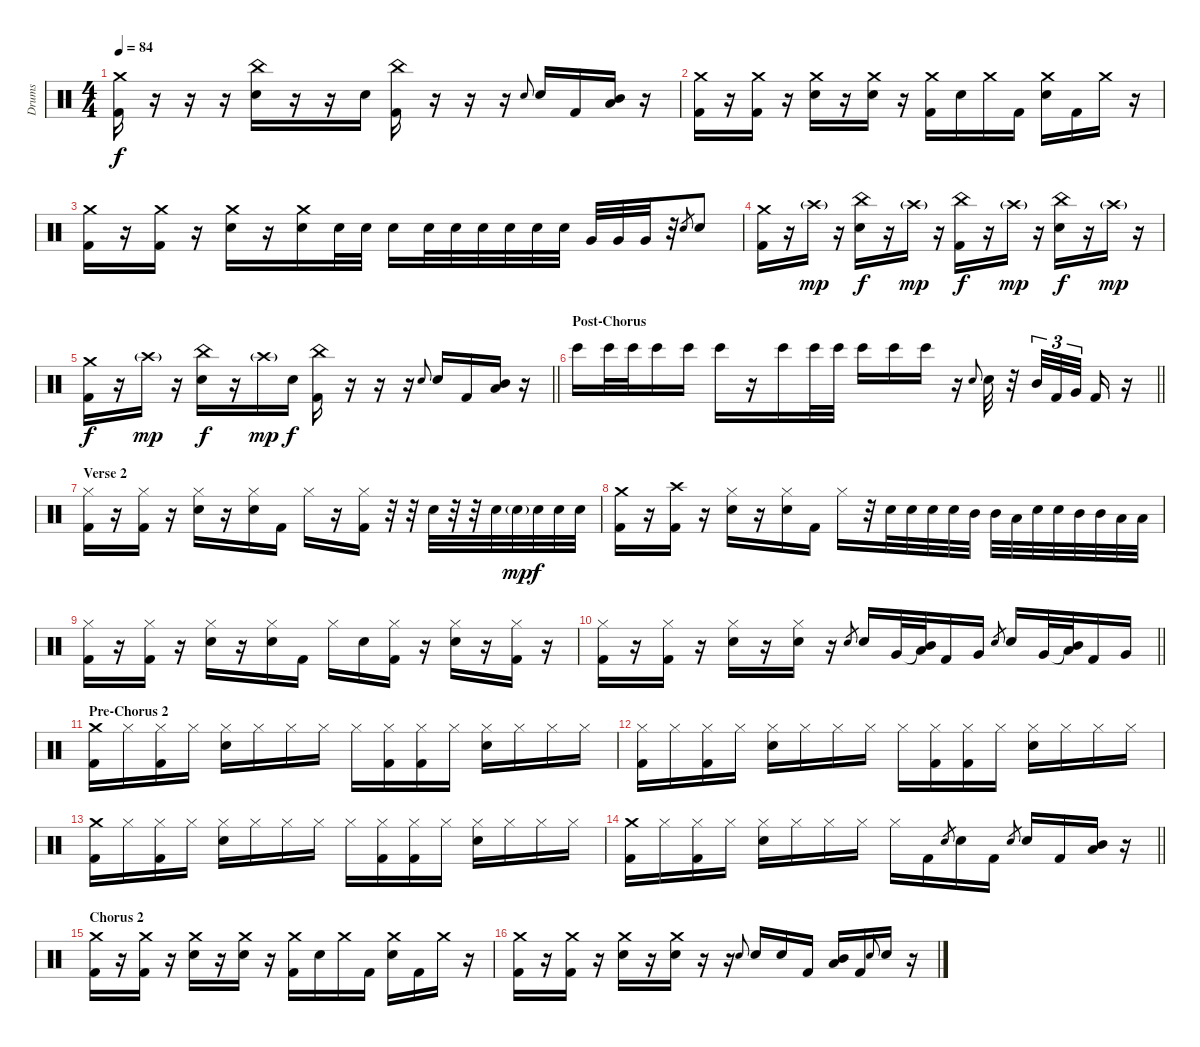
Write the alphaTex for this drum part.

\track ("Drums" "Drums") {instrument percussion}
\staff {score}
\articulation defaults
\ts (4 4)
\tempo 84
\clef neutral
\ks c
("Crash medium (hit)" "Kick (hit) 2").16{dy f} r.16 r.16 r.16 ("China (hit)" "Electric Snare (hit)").16 r.16 r.16 "Electric Snare (hit)".16 ("China (hit)" "Kick (hit) 2").16 r.16 r.16 r.16 "Electric Snare (hit)".8{gr onbeat} "Electric Snare (hit)".16 "Kick (hit) 2".16 ("Mid Tom (hit)" "Low Tom (hit)").16 r.16 |
("Crash medium (hit)" "Kick (hit) 2").16 r.16 ("Crash medium (hit)" "Kick (hit) 2").16 r.16 ("Crash medium (hit)" "Electric Snare (hit)").16 r.16 ("Crash medium (hit)" "Electric Snare (hit)").16 r.16 ("Crash medium (hit)" "Kick (hit) 2").16 "Electric Snare (hit)".16 "Crash medium (hit)".16 "Kick (hit) 2".16 ("Crash medium (hit)" "Electric Snare (hit)").16 "Kick (hit) 2".16 "Crash medium (hit)".16 r.16 |
("Crash medium (hit)" "Kick (hit) 2").16 r.16 ("Crash medium (hit)" "Kick (hit) 2").16 r.16 ("Crash medium (hit)" "Electric Snare (hit)").16 r.16 ("Crash medium (hit)" "Electric Snare (hit)").16 "Electric Snare (hit)".32 "Electric Snare (hit)".32 "Electric Snare (hit)".16 "Electric Snare (hit)".32 "Electric Snare (hit)".32 "Electric Snare (hit)".32 "Electric Snare (hit)".32 "Electric Snare (hit)".32 "Electric Snare (hit)".32 "Very Low Tom (hit)".32 "Very Low Tom (hit)".32 "Very Low Tom (hit)".32 r.32 "Electric Snare (hit)".8{gr} "Electric Snare (hit)".8 |
("Crash medium (hit)" "Kick (hit) 2").16 r.16 "Crash high (hit)"{g}.16{dy mp} r.16 ("China (hit)" "Electric Snare (hit)").16{dy f} r.16 "Crash high (hit)"{g}.16{dy mp} r.16 ("China (hit)" "Kick (hit) 2").16{dy f} r.16 "Crash high (hit)"{g}.16{dy mp} r.16 ("China (hit)" "Electric Snare (hit)").16{dy f} r.16 "Crash high (hit)"{g}.16{dy mp} r.16 |
\barLineRight lightlight
("Crash medium (hit)" "Kick (hit) 2").16{dy f} r.16 "Crash high (hit)"{g}.16{dy mp} r.16 ("China (hit)" "Electric Snare (hit)").16{dy f} r.16 "Crash high (hit)"{g}.16{dy mp} "Electric Snare (hit)".16{dy f} ("China (hit)" "Kick (hit) 2").16 r.16 r.16 r.16 "Electric Snare (hit)".8{gr onbeat} "Electric Snare (hit)".16 "Kick (hit) 2".16 ("Mid Tom (hit)" "Low Tom (hit)").16 r.16 |
\section ("" "Post-Chorus")
\barLineRight lightlight "Bongo High (hit)".16 "Bongo High (hit)".32 "Bongo High (hit)".32 "Bongo High (hit)".16 "Bongo High (hit)".16 "Bongo High (hit)".16
r.16 "Bongo High (hit)".16 "Bongo High (hit)".32 "Bongo High (hit)".32 "Bongo High (hit)".16 "Bongo High (hit)".16 "Bongo High (hit)".16 r.16 "Electric Snare (hit)".8{gr onbeat} "Electric Snare (hit)".32 r.32 "Mid Tom (hit)".32{tu (3 2)} "Kick (hit) 2".32{tu (3 2)} "Very Low Tom (hit)".32{tu (3 2) beam splitsecondary} "Kick (hit) 2".16 r.16 |
\section ("" "Verse 2")
("Hi-Hat (closed)" "Kick (hit) 2").16 r.16 ("Hi-Hat (closed)" "Kick (hit) 2").16 r.16 ("Hi-Hat (closed)" "Electric Snare (hit)").16 r.16 ("Hi-Hat (closed)" "Electric Snare (hit)").16 "Kick (hit) 2".16 "Hi-Hat (closed)".16 r.16 ("Hi-Hat (closed)" "Kick (hit) 2").16 r.32 r.32 "Electric Snare (hit)".32 r.32 r.32 "Electric Snare (hit)".32 "Electric Snare (hit)"{g}.32{dy mp} "Electric Snare (hit)".32{dy f} "Electric Snare (hit)".32 "Electric Snare (hit)".32 |
("Crash medium (hit)" "Kick (hit) 2").16 r.16 ("Crash high (hit)" "Kick (hit) 2").16 r.16 ("Hi-Hat (closed)" "Electric Snare (hit)").16 r.16 ("Hi-Hat (closed)" "Electric Snare (hit)").16 "Kick (hit) 2".16 "Hi-Hat (closed)".16 r.32 "Electric Snare (hit)".32 "Electric Snare (hit)".32 "Electric Snare (hit)".32 "Electric Snare (hit)".32 "Mid Tom (hit)".32 "Mid Tom (hit)".32 "Low Tom (hit)".32 "Electric Snare (hit)".32 "Electric Snare (hit)".32 "Mid Tom (hit)".32 "Mid Tom (hit)".32 "Low Tom (hit)".32 "Low Tom (hit)".32 |
("Hi-Hat (closed)" "Kick (hit) 2").16 r.16 ("Hi-Hat (closed)" "Kick (hit) 2").16 r.16 ("Hi-Hat (closed)" "Electric Snare (hit)").16 r.16 ("Hi-Hat (closed)" "Electric Snare (hit)").16 "Kick (hit) 2".16 "Hi-Hat (closed)".16 "Electric Snare (hit)".16 ("Hi-Hat (closed)" "Kick (hit) 2").16 r.16 ("Hi-Hat (closed)" "Electric Snare (hit)").16 r.16 ("Hi-Hat (closed)" "Kick (hit) 2").16 r.16 |
\barLineRight lightlight
("Hi-Hat (closed)" "Kick (hit) 2").16 r.16 ("Hi-Hat (closed)" "Kick (hit) 2").16 r.16 ("Hi-Hat (closed)" "Electric Snare (hit)").16 r.16 ("Hi-Hat (closed)" "Electric Snare (hit)").16 r.16 "Electric Snare (hit)".8{gr} "Electric Snare (hit)".16 "Very Low Tom (hit)".32 ("Mid Tom (hit)"{t} "Low Tom (hit)").32 "Kick (hit) 2".16 "Very Low Tom (hit)".16 "Electric Snare (hit)".8{gr} "Electric Snare (hit)".16 "Very Low Tom (hit)".32 ("Mid Tom (hit)"{t} "Low Tom (hit)").32 "Kick (hit) 2".16 "Very Low Tom (hit)".16 |
\section ("" "Pre-Chorus 2")
("Crash medium (hit)" "Kick (hit) 2").16 "Hi-Hat (closed)".16 ("Hi-Hat (closed)" "Kick (hit) 2").16 "Hi-Hat (closed)".16 ("Hi-Hat (closed)" "Electric Snare (hit)").16 "Hi-Hat (closed)".16 "Hi-Hat (closed)".16 "Hi-Hat (closed)".16 "Hi-Hat (closed)".16 ("Hi-Hat (closed)" "Kick (hit) 2").16 ("Hi-Hat (closed)" "Kick (hit) 2").16 "Hi-Hat (closed)".16 ("Hi-Hat (closed)" "Electric Snare (hit)").16 "Hi-Hat (closed)".16 "Hi-Hat (closed)".16 "Hi-Hat (closed)".16 |
("Hi-Hat (closed)" "Kick (hit) 2").16 "Hi-Hat (closed)".16 ("Hi-Hat (closed)" "Kick (hit) 2").16 "Hi-Hat (closed)".16 ("Hi-Hat (closed)" "Electric Snare (hit)").16 "Hi-Hat (closed)".16 "Hi-Hat (closed)".16 "Hi-Hat (closed)".16 "Hi-Hat (closed)".16 ("Hi-Hat (closed)" "Kick (hit) 2").16 ("Hi-Hat (closed)" "Kick (hit) 2").16 "Hi-Hat (closed)".16 ("Hi-Hat (closed)" "Electric Snare (hit)").16 "Hi-Hat (closed)".16 "Hi-Hat (closed)".16 "Hi-Hat (closed)".16 |
("Crash medium (hit)" "Kick (hit) 2").16 "Hi-Hat (closed)".16 ("Hi-Hat (closed)" "Kick (hit) 2").16 "Hi-Hat (closed)".16 ("Hi-Hat (closed)" "Electric Snare (hit)").16 "Hi-Hat (closed)".16 "Hi-Hat (closed)".16 "Hi-Hat (closed)".16 "Hi-Hat (closed)".16 ("Hi-Hat (closed)" "Kick (hit) 2").16 ("Hi-Hat (closed)" "Kick (hit) 2").16 "Hi-Hat (closed)".16 ("Hi-Hat (closed)" "Electric Snare (hit)").16 "Hi-Hat (closed)".16 "Hi-Hat (closed)".16 "Hi-Hat (closed)".16 |
\barLineRight lightlight
("Crash medium (hit)" "Kick (hit) 2").16 "Hi-Hat (closed)".16 ("Hi-Hat (closed)" "Kick (hit) 2").16 "Hi-Hat (closed)".16 ("Hi-Hat (closed)" "Electric Snare (hit)").16 "Hi-Hat (closed)".16 "Hi-Hat (closed)".16 "Hi-Hat (closed)".16 "Hi-Hat (closed)".16 "Kick (hit) 2".16 "Electric Snare (hit)".8{gr} "Electric Snare (hit)".16 "Kick (hit) 2".16 "Electric Snare (hit)".8{gr} "Electric Snare (hit)".16 "Kick (hit) 2".16 ("Mid Tom (hit)" "Low Tom (hit)").16 r.16 |
\section ("" "Chorus 2")
("Crash medium (hit)" "Kick (hit) 2").16 r.16 ("Crash medium (hit)" "Kick (hit) 2").16 r.16 ("Crash medium (hit)" "Electric Snare (hit)").16 r.16 ("Crash medium (hit)" "Electric Snare (hit)").16 r.16 ("Crash medium (hit)" "Kick (hit) 2").16 "Electric Snare (hit)".16 "Crash medium (hit)".16 "Kick (hit) 2".16 ("Crash medium (hit)" "Electric Snare (hit)").16 "Kick (hit) 2".16 "Crash medium (hit)".16 r.16 |
("Crash medium (hit)" "Kick (hit) 2").16 r.16 ("Crash medium (hit)" "Kick (hit) 2").16 r.16 ("Crash medium (hit)" "Electric Snare (hit)").16 r.16 ("Crash medium (hit)" "Electric Snare (hit)").16 r.16 r.16 "Electric Snare (hit)".8{gr onbeat} "Electric Snare (hit)".16 "Electric Snare (hit)".16 "Kick (hit) 2".16 ("Mid Tom (hit)" "Low Tom (hit)").16 "Kick (hit) 2".16 "Electric Snare (hit)".8{gr onbeat} "Electric Snare (hit)".16 r.16
